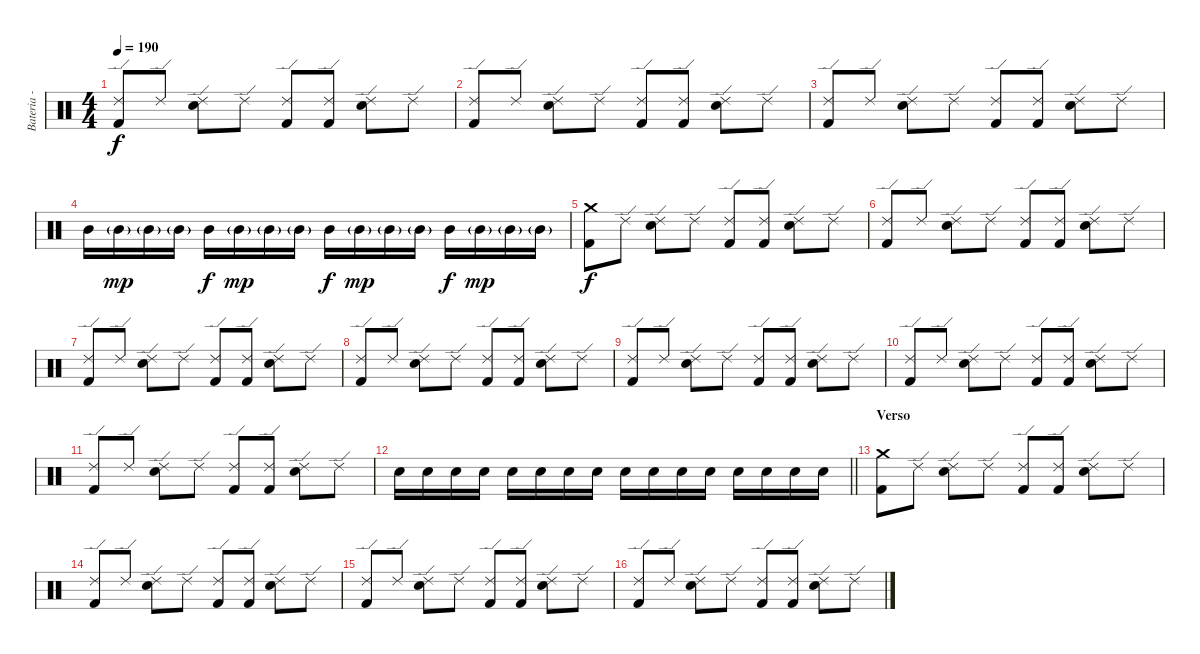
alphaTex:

\track ("Bateria - Larzon" "Bateria - ") {instrument percussion}
\staff {score}
\articulation defaults
\ts (4 4)
\tempo 190
\clef neutral
\ks c
("Kick (hit) 2" "Ride (edge) 2").8{dy f} "Ride (edge) 2".8 ("Electric Snare (hit)" "Ride (edge) 2").8 "Ride (edge) 2".8 ("Kick (hit) 2" "Ride (edge) 2").8 ("Kick (hit) 2" "Ride (edge) 2").8 ("Electric Snare (hit)" "Ride (edge) 2").8 "Ride (edge) 2".8 |
("Kick (hit) 2" "Ride (edge) 2").8 "Ride (edge) 2".8 ("Electric Snare (hit)" "Ride (edge) 2").8 "Ride (edge) 2".8 ("Kick (hit) 2" "Ride (edge) 2").8 ("Kick (hit) 2" "Ride (edge) 2").8 ("Electric Snare (hit)" "Ride (edge) 2").8 "Ride (edge) 2".8 |
("Kick (hit) 2" "Ride (edge) 2").8 "Ride (edge) 2".8 ("Electric Snare (hit)" "Ride (edge) 2").8 "Ride (edge) 2".8 ("Kick (hit) 2" "Ride (edge) 2").8 ("Kick (hit) 2" "Ride (edge) 2").8 ("Electric Snare (hit)" "Ride (edge) 2").8 "Ride (edge) 2".8 |
"Mid Tom (hit)".16 "Mid Tom (hit)"{g}.16{dy mp} "Mid Tom (hit)"{g}.16 "Mid Tom (hit)"{g}.16 "Mid Tom (hit)".16{dy f} "Mid Tom (hit)"{g}.16{dy mp} "Mid Tom (hit)"{g}.16 "Mid Tom (hit)"{g}.16 "Mid Tom (hit)".16{dy f} "Mid Tom (hit)"{g}.16{dy mp} "Mid Tom (hit)"{g}.16 "Mid Tom (hit)"{g}.16 "Mid Tom (hit)".16{dy f} "Mid Tom (hit)"{g}.16{dy mp} "Mid Tom (hit)"{g}.16 "Mid Tom (hit)"{g}.16 |
("Kick (hit) 2" "Crash medium (hit)").8{dy f} "Ride (edge) 2".8 ("Electric Snare (hit)" "Ride (edge) 2").8 "Ride (edge) 2".8 ("Kick (hit) 2" "Ride (edge) 2").8 ("Kick (hit) 2" "Ride (edge) 2").8 ("Electric Snare (hit)" "Ride (edge) 2").8 "Ride (edge) 2".8 |
("Kick (hit) 2" "Ride (edge) 2").8 "Ride (edge) 2".8 ("Electric Snare (hit)" "Ride (edge) 2").8 "Ride (edge) 2".8 ("Kick (hit) 2" "Ride (edge) 2").8 ("Kick (hit) 2" "Ride (edge) 2").8 ("Electric Snare (hit)" "Ride (edge) 2").8 "Ride (edge) 2".8 |
("Kick (hit) 2" "Ride (edge) 2").8 "Ride (edge) 2".8 ("Electric Snare (hit)" "Ride (edge) 2").8 "Ride (edge) 2".8 ("Kick (hit) 2" "Ride (edge) 2").8 ("Kick (hit) 2" "Ride (edge) 2").8 ("Electric Snare (hit)" "Ride (edge) 2").8 "Ride (edge) 2".8 |
("Kick (hit) 2" "Ride (edge) 2").8 "Ride (edge) 2".8 ("Electric Snare (hit)" "Ride (edge) 2").8 "Ride (edge) 2".8 ("Kick (hit) 2" "Ride (edge) 2").8 ("Kick (hit) 2" "Ride (edge) 2").8 ("Electric Snare (hit)" "Ride (edge) 2").8 "Ride (edge) 2".8 |
("Kick (hit) 2" "Ride (edge) 2").8 "Ride (edge) 2".8 ("Electric Snare (hit)" "Ride (edge) 2").8 "Ride (edge) 2".8 ("Kick (hit) 2" "Ride (edge) 2").8 ("Kick (hit) 2" "Ride (edge) 2").8 ("Electric Snare (hit)" "Ride (edge) 2").8 "Ride (edge) 2".8 |
("Kick (hit) 2" "Ride (edge) 2").8 "Ride (edge) 2".8 ("Electric Snare (hit)" "Ride (edge) 2").8 "Ride (edge) 2".8 ("Kick (hit) 2" "Ride (edge) 2").8 ("Kick (hit) 2" "Ride (edge) 2").8 ("Electric Snare (hit)" "Ride (edge) 2").8 "Ride (edge) 2".8 |
("Kick (hit) 2" "Ride (edge) 2").8 "Ride (edge) 2".8 ("Electric Snare (hit)" "Ride (edge) 2").8 "Ride (edge) 2".8 ("Kick (hit) 2" "Ride (edge) 2").8 ("Kick (hit) 2" "Ride (edge) 2").8 ("Electric Snare (hit)" "Ride (edge) 2").8 "Ride (edge) 2".8 |
\barLineRight lightlight "Electric Snare (hit)".16 "Electric Snare (hit)".16 "Electric Snare (hit)".16 "Electric Snare (hit)".16 "Electric Snare (hit)".16 "Electric Snare (hit)".16 "Electric Snare (hit)".16 "Electric Snare (hit)".16 "Electric Snare (hit)".16 "Electric Snare (hit)".16 "Electric Snare (hit)".16 "Electric Snare (hit)".16 "Electric Snare (hit)".16 "Electric Snare (hit)".16 "Electric Snare (hit)".16 "Electric Snare (hit)".16
|
\section ("" "Verso ")
("Kick (hit) 2" "Crash medium (hit)").8 "Ride (edge) 2".8 ("Electric Snare (hit)" "Ride (edge) 2").8 "Ride (edge) 2".8 ("Kick (hit) 2" "Ride (edge) 2").8 ("Kick (hit) 2" "Ride (edge) 2").8 ("Electric Snare (hit)" "Ride (edge) 2").8 "Ride (edge) 2".8 |
("Kick (hit) 2" "Ride (edge) 2").8 "Ride (edge) 2".8 ("Electric Snare (hit)" "Ride (edge) 2").8 "Ride (edge) 2".8 ("Kick (hit) 2" "Ride (edge) 2").8 ("Kick (hit) 2" "Ride (edge) 2").8 ("Electric Snare (hit)" "Ride (edge) 2").8 "Ride (edge) 2".8 |
("Kick (hit) 2" "Ride (edge) 2").8 "Ride (edge) 2".8 ("Electric Snare (hit)" "Ride (edge) 2").8 "Ride (edge) 2".8 ("Kick (hit) 2" "Ride (edge) 2").8 ("Kick (hit) 2" "Ride (edge) 2").8 ("Electric Snare (hit)" "Ride (edge) 2").8 "Ride (edge) 2".8 |
("Kick (hit) 2" "Ride (edge) 2").8 "Ride (edge) 2".8 ("Electric Snare (hit)" "Ride (edge) 2").8 "Ride (edge) 2".8 ("Kick (hit) 2" "Ride (edge) 2").8 ("Kick (hit) 2" "Ride (edge) 2").8 ("Electric Snare (hit)" "Ride (edge) 2").8 "Ride (edge) 2".8
